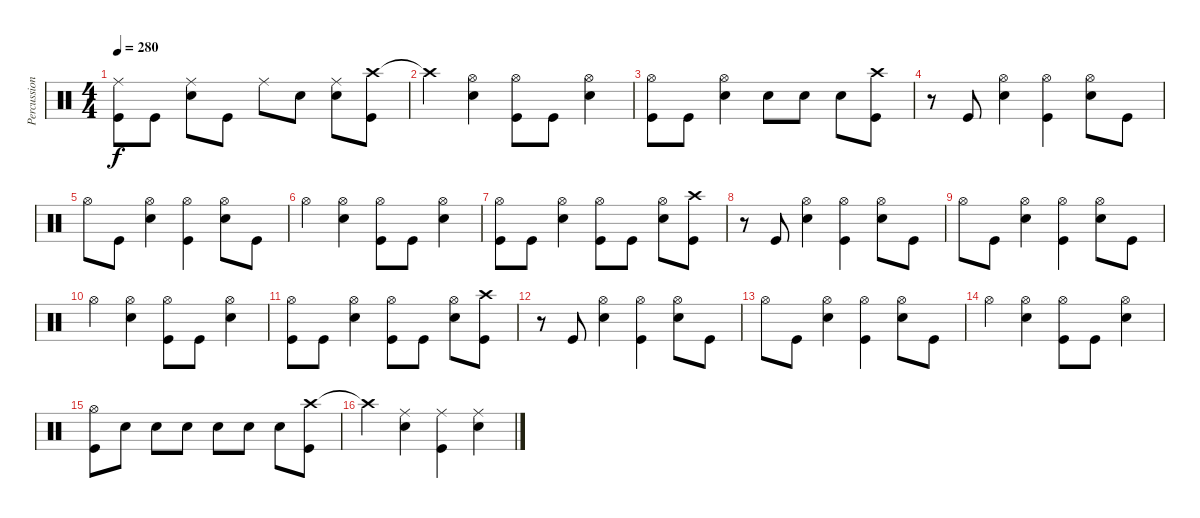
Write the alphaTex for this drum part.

\track ("Percussion" "Percussion") {instrument percussion}
\staff {score}
\articulation defaults
\ts (4 4)
\tempo 280
\clef neutral
\ks c
("Kick (hit)" "Ride (middle)").8{dy f} "Kick (hit)".8 ("Snare (hit) 2" "Ride (middle)").8 "Kick (hit)".8 "Ride (middle)".8 "Snare (hit) 2".8 ("Snare (hit) 2" "Ride (middle)").8 ("Crash high (hit)" "Kick (hit)").8 |
"Crash high (hit)"{t}.4 ("Hi-Hat (open)" "Snare (hit) 2").4 ("Kick (hit)" "Hi-Hat (open)").8 "Kick (hit)".8 ("Snare (hit) 2" "Hi-Hat (open)").4 |
("Hi-Hat (open)" "Kick (hit)").8 "Kick (hit)".8 ("Snare (hit) 2" "Hi-Hat (open)").4 "Snare (hit) 2".8 "Snare (hit) 2".8 "Snare (hit) 2".8 ("Kick (hit)" "Crash high (hit)").8 |
r.8 "Kick (hit)".8 ("Snare (hit) 2" "Hi-Hat (open)").4 ("Kick (hit)" "Hi-Hat (open)").4 ("Snare (hit) 2" "Hi-Hat (open)").8 "Kick (hit)".8 |
"Hi-Hat (open)".8 "Kick (hit)".8 ("Snare (hit) 2" "Hi-Hat (open)").4 ("Kick (hit)" "Hi-Hat (open)").4 ("Snare (hit) 2" "Hi-Hat (open)").8 "Kick (hit)".8 |
"Hi-Hat (open)".4 ("Snare (hit) 2" "Hi-Hat (open)").4 ("Kick (hit)" "Hi-Hat (open)").8 "Kick (hit)".8 ("Hi-Hat (open)" "Snare (hit) 2").4 |
("Kick (hit)" "Hi-Hat (open)").8 "Kick (hit)".8 ("Snare (hit) 2" "Hi-Hat (open)").4 ("Kick (hit)" "Hi-Hat (open)").8 "Kick (hit)".8 ("Hi-Hat (open)" "Snare (hit) 2").8 ("Kick (hit)" "Crash high (hit)").8 |
r.8 "Kick (hit)".8 ("Snare (hit) 2" "Hi-Hat (open)").4 ("Kick (hit)" "Hi-Hat (open)").4 ("Snare (hit) 2" "Hi-Hat (open)").8 "Kick (hit)".8 |
"Hi-Hat (open)".8 "Kick (hit)".8 ("Snare (hit) 2" "Hi-Hat (open)").4 ("Kick (hit)" "Hi-Hat (open)").4 ("Snare (hit) 2" "Hi-Hat (open)").8 "Kick (hit)".8 |
"Hi-Hat (open)".4 ("Snare (hit) 2" "Hi-Hat (open)").4 ("Kick (hit)" "Hi-Hat (open)").8 "Kick (hit)".8 ("Hi-Hat (open)" "Snare (hit) 2").4 |
("Kick (hit)" "Hi-Hat (open)").8 "Kick (hit)".8 ("Snare (hit) 2" "Hi-Hat (open)").4 ("Kick (hit)" "Hi-Hat (open)").8 "Kick (hit)".8 ("Hi-Hat (open)" "Snare (hit) 2").8 ("Kick (hit)" "Crash high (hit)").8 |
r.8 "Kick (hit)".8 ("Snare (hit) 2" "Hi-Hat (open)").4 ("Kick (hit)" "Hi-Hat (open)").4 ("Snare (hit) 2" "Hi-Hat (open)").8 "Kick (hit)".8 |
"Hi-Hat (open)".8 "Kick (hit)".8 ("Snare (hit) 2" "Hi-Hat (open)").4 ("Kick (hit)" "Hi-Hat (open)").4 ("Snare (hit) 2" "Hi-Hat (open)").8 "Kick (hit)".8 |
"Hi-Hat (open)".4 ("Snare (hit) 2" "Hi-Hat (open)").4 ("Kick (hit)" "Hi-Hat (open)").8 "Kick (hit)".8 ("Hi-Hat (open)" "Snare (hit) 2").4 |
("Kick (hit)" "Hi-Hat (open)").8 "Snare (hit) 2".8 "Snare (hit) 2".8 "Snare (hit) 2".8 "Snare (hit) 2".8 "Snare (hit) 2".8 "Snare (hit) 2".8 ("Crash high (hit)" "Kick (hit)").8 |
"Crash high (hit)"{t}.4 ("Snare (hit) 2" "Ride (middle)").4 ("Kick (hit)" "Ride (middle)").4 ("Ride (middle)" "Snare (hit) 2").4
